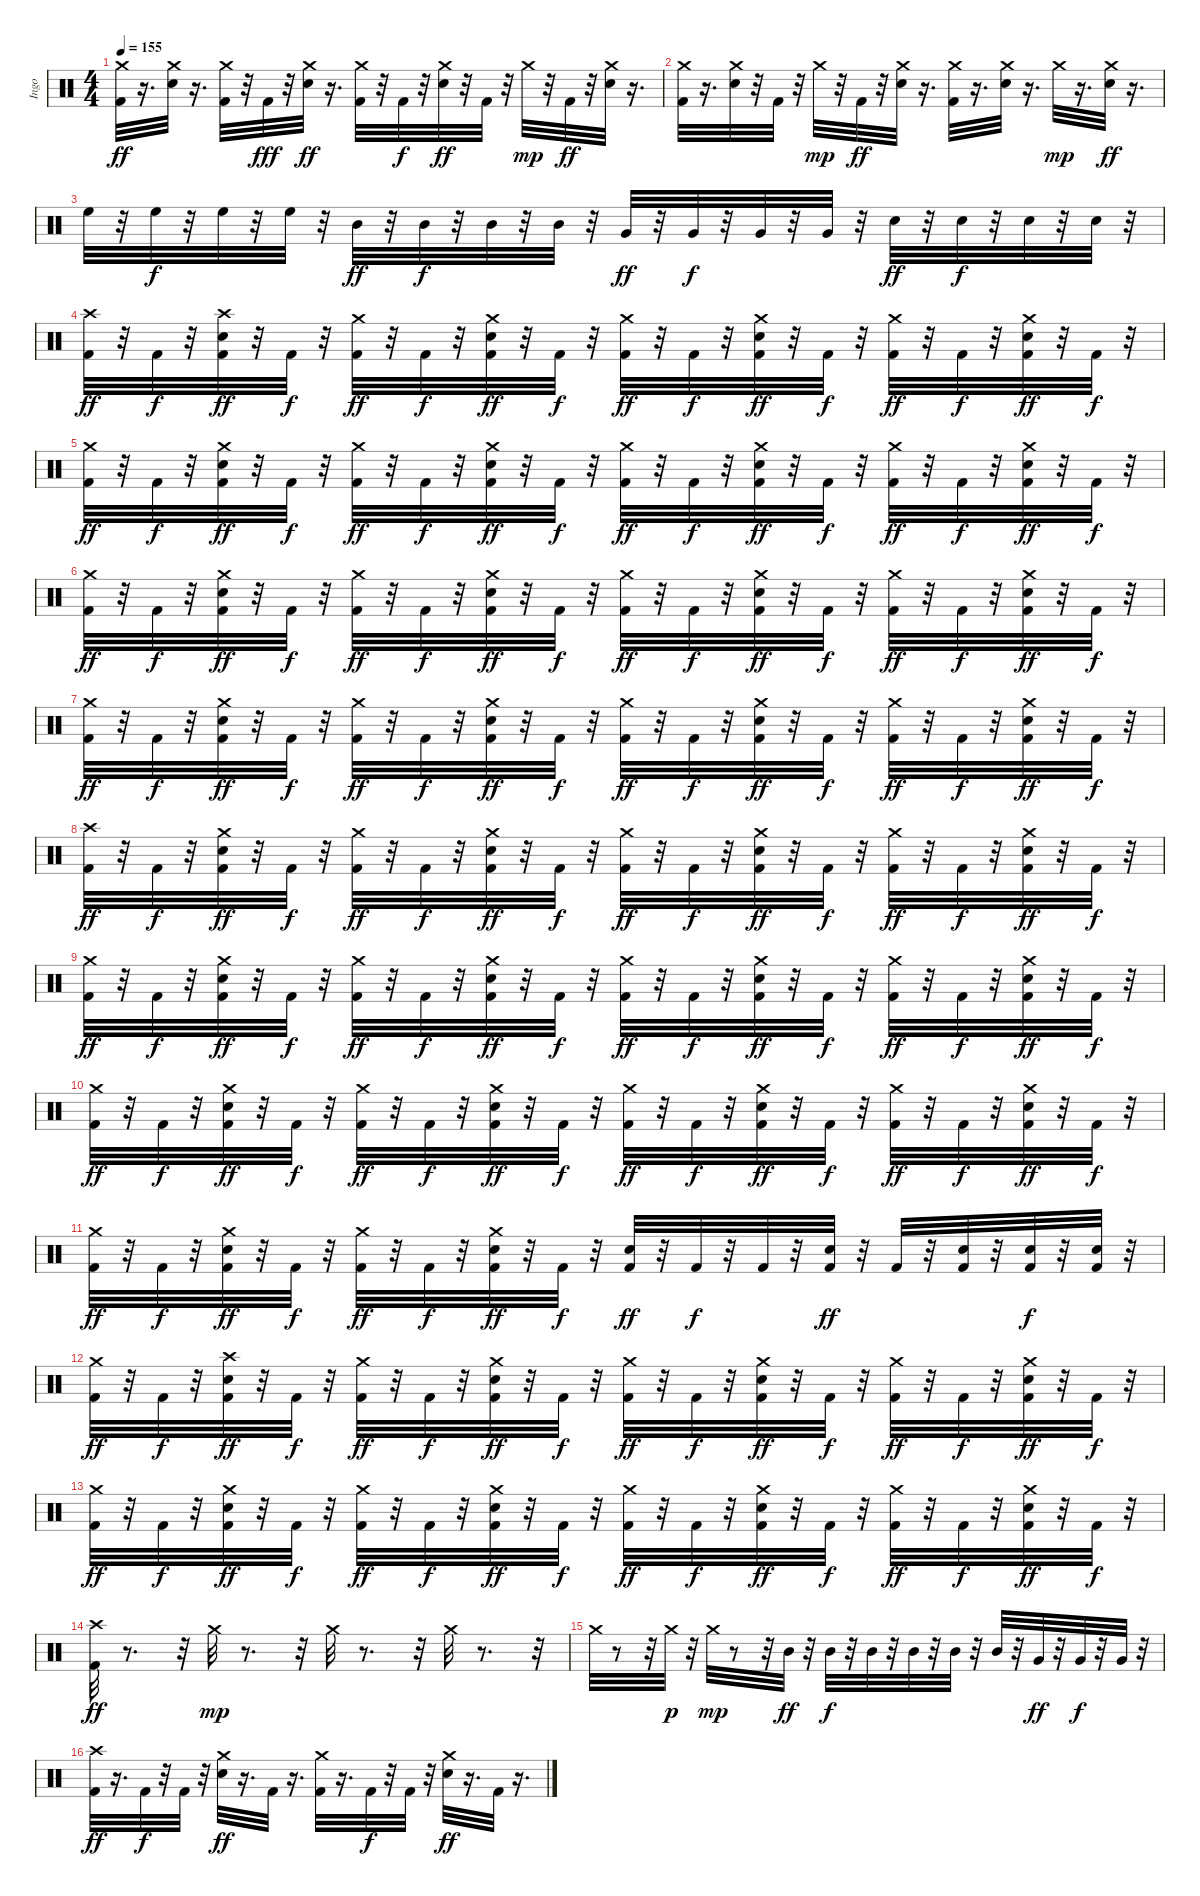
\track ("Ingo" "Ingo") {instrument percussion}
\staff {score}
\articulation defaults
\ts (4 4)
\tempo 155
\clef neutral
\ks c
("Crash medium (hit)" "Kick (hit) 2").32{dy ff} r.16{d} ("Crash medium (hit)" "Snare (hit) 2").32 r.16{d} ("Crash medium (hit)" "Kick (hit) 2").32 r.32 "Kick (hit) 2".32{dy fff} r.32 ("Crash medium (hit)" "Snare (hit) 2").32{dy ff} r.16{d} ("Crash medium (hit)" "Kick (hit) 2").32 r.32 "Kick (hit) 2".32{dy f} r.32 ("Crash medium (hit)" "Snare (hit) 2").32{dy ff} r.32 "Kick (hit) 2".32 r.32 "Crash medium (hit)".32{dy mp} r.32 "Kick (hit) 2".32{dy ff} r.32 ("Crash medium (hit)" "Snare (hit) 2").32 r.16{d} |
("Crash medium (hit)" "Kick (hit) 2").32 r.16{d} ("Crash medium (hit)" "Snare (hit) 2").32 r.32 "Kick (hit) 2".32 r.32 "Crash medium (hit)".32{dy mp} r.32 "Kick (hit) 2".32{dy ff} r.32 ("Crash medium (hit)" "Snare (hit) 2").32 r.16{d} ("Crash medium (hit)" "Kick (hit) 2").32 r.16{d} ("Crash medium (hit)" "Snare (hit) 2").32 r.16{d} "Crash medium (hit)".32{dy mp} r.16{d} ("Crash medium (hit)" "Snare (hit) 2").32{dy ff} r.16{d} |
"High Floor Tom (hit)".32 r.32 "High Floor Tom (hit)".32{dy f} r.32 "High Floor Tom (hit)".32 r.32 "High Floor Tom (hit)".32 r.32 "Mid Tom (hit)".32{dy ff} r.32 "Mid Tom (hit)".32{dy f} r.32 "Mid Tom (hit)".32 r.32 "Mid Tom (hit)".32 r.32 "Very Low Tom (hit)".32{dy ff} r.32 "Very Low Tom (hit)".32{dy f} r.32 "Very Low Tom (hit)".32 r.32 "Very Low Tom (hit)".32 r.32 "Snare (hit)".32{dy ff} r.32 "Snare (hit)".32{dy f} r.32 "Snare (hit)".32 r.32 "Snare (hit)".32 r.32 |
("Crash high (hit)" "Kick (hit) 2").32{dy ff} r.32 "Kick (hit) 2".32{dy f} r.32 ("Kick (hit) 2" "Crash high (hit)" "Snare (hit) 2").32{dy ff} r.32 "Kick (hit) 2".32{dy f} r.32 ("Crash medium (hit)" "Kick (hit) 2").32{dy ff} r.32 "Kick (hit) 2".32{dy f} r.32 ("Kick (hit) 2" "Crash medium (hit)" "Snare (hit) 2").32{dy ff} r.32 "Kick (hit) 2".32{dy f} r.32 ("Crash medium (hit)" "Kick (hit) 2").32{dy ff} r.32 "Kick (hit) 2".32{dy f} r.32 ("Kick (hit) 2" "Crash medium (hit)" "Snare (hit) 2").32{dy ff} r.32 "Kick (hit) 2".32{dy f} r.32 ("Crash medium (hit)" "Kick (hit) 2").32{dy ff} r.32 "Kick (hit) 2".32{dy f} r.32 ("Kick (hit) 2" "Crash medium (hit)" "Snare (hit) 2").32{dy ff} r.32 "Kick (hit) 2".32{dy f} r.32 |
("Crash medium (hit)" "Kick (hit) 2").32{dy ff} r.32 "Kick (hit) 2".32{dy f} r.32 ("Kick (hit) 2" "Crash medium (hit)" "Snare (hit) 2").32{dy ff} r.32 "Kick (hit) 2".32{dy f} r.32 ("Crash medium (hit)" "Kick (hit) 2").32{dy ff} r.32 "Kick (hit) 2".32{dy f} r.32 ("Kick (hit) 2" "Crash medium (hit)" "Snare (hit) 2").32{dy ff} r.32 "Kick (hit) 2".32{dy f} r.32 ("Crash medium (hit)" "Kick (hit) 2").32{dy ff} r.32 "Kick (hit) 2".32{dy f} r.32 ("Kick (hit) 2" "Crash medium (hit)" "Snare (hit) 2").32{dy ff} r.32 "Kick (hit) 2".32{dy f} r.32 ("Crash medium (hit)" "Kick (hit) 2").32{dy ff} r.32 "Kick (hit) 2".32{dy f} r.32 ("Kick (hit) 2" "Crash medium (hit)" "Snare (hit) 2").32{dy ff} r.32 "Kick (hit) 2".32{dy f} r.32 |
("Crash medium (hit)" "Kick (hit) 2").32{dy ff} r.32 "Kick (hit) 2".32{dy f} r.32 ("Kick (hit) 2" "Crash medium (hit)" "Snare (hit) 2").32{dy ff} r.32 "Kick (hit) 2".32{dy f} r.32 ("Crash medium (hit)" "Kick (hit) 2").32{dy ff} r.32 "Kick (hit) 2".32{dy f} r.32 ("Kick (hit) 2" "Crash medium (hit)" "Snare (hit) 2").32{dy ff} r.32 "Kick (hit) 2".32{dy f} r.32 ("Crash medium (hit)" "Kick (hit) 2").32{dy ff} r.32 "Kick (hit) 2".32{dy f} r.32 ("Kick (hit) 2" "Crash medium (hit)" "Snare (hit) 2").32{dy ff} r.32 "Kick (hit) 2".32{dy f} r.32 ("Crash medium (hit)" "Kick (hit) 2").32{dy ff} r.32 "Kick (hit) 2".32{dy f} r.32 ("Kick (hit) 2" "Crash medium (hit)" "Snare (hit) 2").32{dy ff} r.32 "Kick (hit) 2".32{dy f} r.32 |
("Crash medium (hit)" "Kick (hit) 2").32{dy ff} r.32 "Kick (hit) 2".32{dy f} r.32 ("Kick (hit) 2" "Crash medium (hit)" "Snare (hit) 2").32{dy ff} r.32 "Kick (hit) 2".32{dy f} r.32 ("Crash medium (hit)" "Kick (hit) 2").32{dy ff} r.32 "Kick (hit) 2".32{dy f} r.32 ("Kick (hit) 2" "Crash medium (hit)" "Snare (hit) 2").32{dy ff} r.32 "Kick (hit) 2".32{dy f} r.32 ("Crash medium (hit)" "Kick (hit) 2").32{dy ff} r.32 "Kick (hit) 2".32{dy f} r.32 ("Kick (hit) 2" "Crash medium (hit)" "Snare (hit) 2").32{dy ff} r.32 "Kick (hit) 2".32{dy f} r.32 ("Crash medium (hit)" "Kick (hit) 2").32{dy ff} r.32 "Kick (hit) 2".32{dy f} r.32 ("Kick (hit) 2" "Crash medium (hit)" "Snare (hit) 2").32{dy ff} r.32 "Kick (hit) 2".32{dy f} r.32 |
("Crash high (hit)" "Kick (hit) 2").32{dy ff} r.32 "Kick (hit) 2".32{dy f} r.32 ("Kick (hit) 2" "Crash medium (hit)" "Snare (hit) 2").32{dy ff} r.32 "Kick (hit) 2".32{dy f} r.32 ("Crash medium (hit)" "Kick (hit) 2").32{dy ff} r.32 "Kick (hit) 2".32{dy f} r.32 ("Kick (hit) 2" "Crash medium (hit)" "Snare (hit) 2").32{dy ff} r.32 "Kick (hit) 2".32{dy f} r.32 ("Crash medium (hit)" "Kick (hit) 2").32{dy ff} r.32 "Kick (hit) 2".32{dy f} r.32 ("Kick (hit) 2" "Crash medium (hit)" "Snare (hit) 2").32{dy ff} r.32 "Kick (hit) 2".32{dy f} r.32 ("Crash medium (hit)" "Kick (hit) 2").32{dy ff} r.32 "Kick (hit) 2".32{dy f} r.32 ("Kick (hit) 2" "Crash medium (hit)" "Snare (hit) 2").32{dy ff} r.32 "Kick (hit) 2".32{dy f} r.32 |
("Crash medium (hit)" "Kick (hit) 2").32{dy ff} r.32 "Kick (hit) 2".32{dy f} r.32 ("Kick (hit) 2" "Crash medium (hit)" "Snare (hit) 2").32{dy ff} r.32 "Kick (hit) 2".32{dy f} r.32 ("Crash medium (hit)" "Kick (hit) 2").32{dy ff} r.32 "Kick (hit) 2".32{dy f} r.32 ("Kick (hit) 2" "Crash medium (hit)" "Snare (hit) 2").32{dy ff} r.32 "Kick (hit) 2".32{dy f} r.32 ("Crash medium (hit)" "Kick (hit) 2").32{dy ff} r.32 "Kick (hit) 2".32{dy f} r.32 ("Kick (hit) 2" "Crash medium (hit)" "Snare (hit) 2").32{dy ff} r.32 "Kick (hit) 2".32{dy f} r.32 ("Crash medium (hit)" "Kick (hit) 2").32{dy ff} r.32 "Kick (hit) 2".32{dy f} r.32 ("Kick (hit) 2" "Crash medium (hit)" "Snare (hit) 2").32{dy ff} r.32 "Kick (hit) 2".32{dy f} r.32 |
("Crash medium (hit)" "Kick (hit) 2").32{dy ff} r.32 "Kick (hit) 2".32{dy f} r.32 ("Kick (hit) 2" "Crash medium (hit)" "Snare (hit) 2").32{dy ff} r.32 "Kick (hit) 2".32{dy f} r.32 ("Crash medium (hit)" "Kick (hit) 2").32{dy ff} r.32 "Kick (hit) 2".32{dy f} r.32 ("Kick (hit) 2" "Crash medium (hit)" "Snare (hit) 2").32{dy ff} r.32 "Kick (hit) 2".32{dy f} r.32 ("Crash medium (hit)" "Kick (hit) 2").32{dy ff} r.32 "Kick (hit) 2".32{dy f} r.32 ("Kick (hit) 2" "Crash medium (hit)" "Snare (hit) 2").32{dy ff} r.32 "Kick (hit) 2".32{dy f} r.32 ("Crash medium (hit)" "Kick (hit) 2").32{dy ff} r.32 "Kick (hit) 2".32{dy f} r.32 ("Kick (hit) 2" "Crash medium (hit)" "Snare (hit) 2").32{dy ff} r.32 "Kick (hit) 2".32{dy f} r.32 |
("Crash medium (hit)" "Kick (hit) 2").32{dy ff} r.32 "Kick (hit) 2".32{dy f} r.32 ("Kick (hit) 2" "Crash medium (hit)" "Snare (hit) 2").32{dy ff} r.32 "Kick (hit) 2".32{dy f} r.32 ("Crash medium (hit)" "Kick (hit) 2").32{dy ff} r.32 "Kick (hit) 2".32{dy f} r.32 ("Kick (hit) 2" "Crash medium (hit)" "Snare (hit) 2").32{dy ff} r.32 "Kick (hit) 2".32{dy f} r.32 ("Snare (hit) 2" "Kick (hit) 2").32{dy ff} r.32 "Kick (hit) 2".32{dy f} r.32 "Kick (hit) 2".32 r.32 ("Snare (hit) 2" "Kick (hit) 2").32{dy ff} r.32 "Kick (hit) 2".32 r.32 ("Snare (hit) 2" "Kick (hit) 2").32 r.32 ("Snare (hit) 2" "Kick (hit) 2").32{dy f} r.32 ("Snare (hit) 2" "Kick (hit) 2").32 r.32 |
("Crash medium (hit)" "Kick (hit) 2").32{dy ff} r.32 "Kick (hit) 2".32{dy f} r.32 ("Snare (hit) 2" "Crash high (hit)" "Kick (hit) 2").32{dy ff} r.32 "Kick (hit) 2".32{dy f} r.32 ("Crash medium (hit)" "Kick (hit) 2").32{dy ff} r.32 "Kick (hit) 2".32{dy f} r.32 ("Kick (hit) 2" "Crash medium (hit)" "Snare (hit) 2").32{dy ff} r.32 "Kick (hit) 2".32{dy f} r.32 ("Crash medium (hit)" "Kick (hit) 2").32{dy ff} r.32 "Kick (hit) 2".32{dy f} r.32 ("Kick (hit) 2" "Crash medium (hit)" "Snare (hit) 2").32{dy ff} r.32 "Kick (hit) 2".32{dy f} r.32 ("Crash medium (hit)" "Kick (hit) 2").32{dy ff} r.32 "Kick (hit) 2".32{dy f} r.32 ("Kick (hit) 2" "Crash medium (hit)" "Snare (hit) 2").32{dy ff} r.32 "Kick (hit) 2".32{dy f} r.32 |
("Crash medium (hit)" "Kick (hit) 2").32{dy ff} r.32 "Kick (hit) 2".32{dy f} r.32 ("Kick (hit) 2" "Crash medium (hit)" "Snare (hit) 2").32{dy ff} r.32 "Kick (hit) 2".32{dy f} r.32 ("Crash medium (hit)" "Kick (hit) 2").32{dy ff} r.32 "Kick (hit) 2".32{dy f} r.32 ("Kick (hit) 2" "Crash medium (hit)" "Snare (hit) 2").32{dy ff} r.32 "Kick (hit) 2".32{dy f} r.32 ("Crash medium (hit)" "Kick (hit) 2").32{dy ff} r.32 "Kick (hit) 2".32{dy f} r.32 ("Kick (hit) 2" "Crash medium (hit)" "Snare (hit) 2").32{dy ff} r.32 "Kick (hit) 2".32{dy f} r.32 ("Crash medium (hit)" "Kick (hit) 2").32{dy ff} r.32 "Kick (hit) 2".32{dy f} r.32 ("Kick (hit) 2" "Crash medium (hit)" "Snare (hit) 2").32{dy ff} r.32 "Kick (hit) 2".32{dy f} r.32 |
("Crash high (hit)" "Kick (hit) 2").32{dy ff} r.8{d} r.32 "Crash medium (hit)".32{dy mp} r.8{d} r.32 "Crash medium (hit)".32 r.8{d} r.32 "Crash medium (hit)".32 r.8{d} r.32 |
"Crash medium (hit)".32 r.8 r.32 "Crash medium (hit)".32{dy p} r.32 "Crash medium (hit)".32{dy mp} r.8 r.32 "Mid Tom (hit)".32{dy ff} r.32 "Mid Tom (hit)".32{dy f} r.32 "Mid Tom (hit)".32 r.32 "Mid Tom (hit)".32 r.32 "Mid Tom (hit)".32 r.32 "Mid Tom (hit)".32 r.32 "Very Low Tom (hit)".32{dy ff} r.32 "Very Low Tom (hit)".32{dy f} r.32 "Very Low Tom (hit)".32 r.32 |
("Crash high (hit)" "Kick (hit) 2").32{dy ff} r.16{d} "Kick (hit) 2".32{dy f} r.32 "Kick (hit) 2".32 r.32 ("Crash medium (hit)" "Snare (hit) 2").32{dy ff} r.16{d} "Kick (hit) 2".32 r.16{d} ("Crash medium (hit)" "Kick (hit) 2").32 r.16{d} "Kick (hit) 2".32{dy f} r.32 "Kick (hit) 2".32 r.32 ("Crash medium (hit)" "Snare (hit) 2").32{dy ff} r.16{d} "Kick (hit) 2".32 r.16{d}
